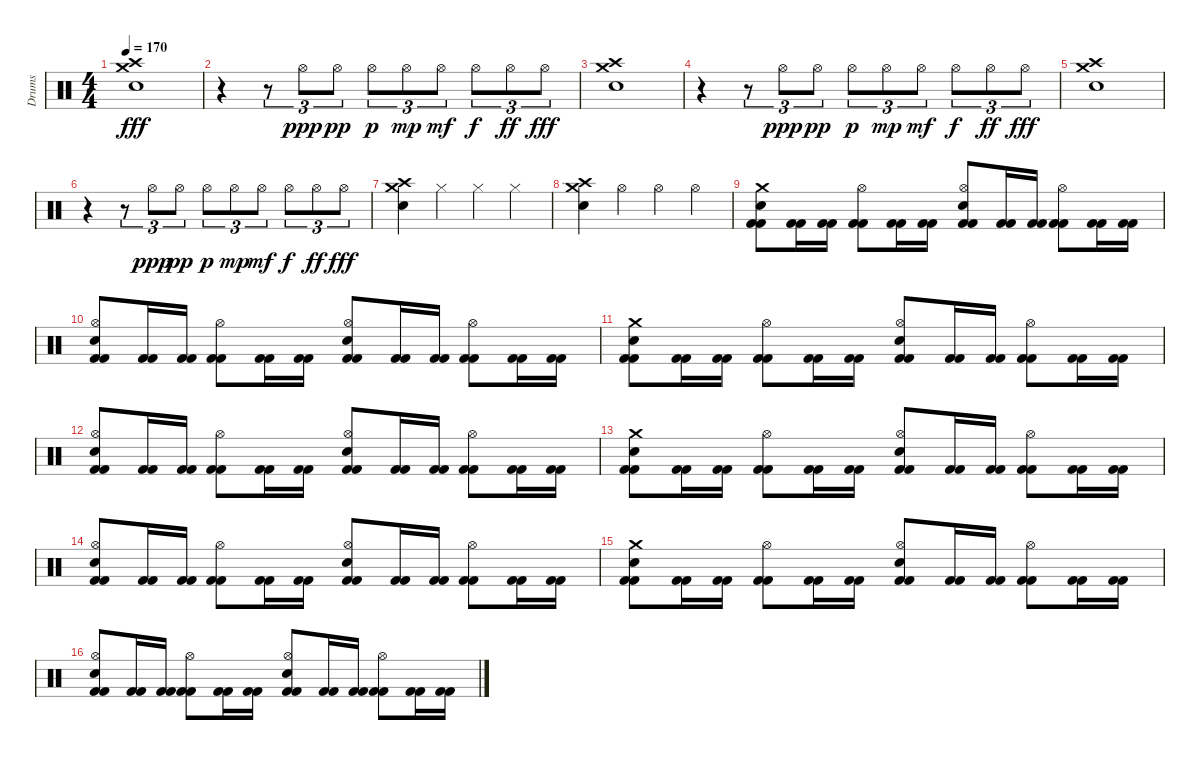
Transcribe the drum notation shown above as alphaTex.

\track ("Drums" "Drums") {instrument percussion}
\staff {score}
\articulation defaults
\ts (4 4)
\tempo 170
\clef neutral
\ks c
("Crash high (hit)" "Crash medium (hit)" "Electric Snare (hit)").1{dy fff} |
r.4 r.8{tu (3 2)} "Hi-Hat (open)".8{tu (3 2) dy ppp} "Hi-Hat (open)".8{tu (3 2) dy pp} "Hi-Hat (open)".8{tu (3 2) dy p} "Hi-Hat (open)".8{tu (3 2) dy mp} "Hi-Hat (open)".8{tu (3 2) dy mf} "Hi-Hat (open)".8{tu (3 2) dy f} "Hi-Hat (open)".8{tu (3 2) dy ff} "Hi-Hat (open)".8{tu (3 2) dy fff} |
("Crash high (hit)" "Crash medium (hit)" "Electric Snare (hit)").1 |
r.4 r.8{tu (3 2)} "Hi-Hat (open)".8{tu (3 2) dy ppp} "Hi-Hat (open)".8{tu (3 2) dy pp} "Hi-Hat (open)".8{tu (3 2) dy p} "Hi-Hat (open)".8{tu (3 2) dy mp} "Hi-Hat (open)".8{tu (3 2) dy mf} "Hi-Hat (open)".8{tu (3 2) dy f} "Hi-Hat (open)".8{tu (3 2) dy ff} "Hi-Hat (open)".8{tu (3 2) dy fff} |
("Crash high (hit)" "Crash medium (hit)" "Electric Snare (hit)").1 |
r.4 r.8{tu (3 2)} "Hi-Hat (open)".8{tu (3 2) dy ppp} "Hi-Hat (open)".8{tu (3 2) dy pp} "Hi-Hat (open)".8{tu (3 2) dy p} "Hi-Hat (open)".8{tu (3 2) dy mp} "Hi-Hat (open)".8{tu (3 2) dy mf} "Hi-Hat (open)".8{tu (3 2) dy f} "Hi-Hat (open)".8{tu (3 2) dy ff} "Hi-Hat (open)".8{tu (3 2) dy fff} |
("Crash high (hit)" "Crash medium (hit)" "Electric Snare (hit)").4 "Hi-Hat (closed)".4 "Hi-Hat (closed)".4 "Hi-Hat (closed)".4 |
("Crash high (hit)" "Crash medium (hit)" "Electric Snare (hit)").4 "Hi-Hat (open)".4 "Hi-Hat (open)".4 "Hi-Hat (open)".4 |
("Crash medium (hit)" "Electric Snare (hit)" "Kick (hit) 2" "Kick (hit) 2").8 ("Kick (hit) 2" "Kick (hit) 2").16 ("Kick (hit) 2" "Kick (hit) 2").16 ("Hi-Hat (open)" "Kick (hit) 2" "Kick (hit) 2").8 ("Kick (hit) 2" "Kick (hit) 2").16 ("Kick (hit) 2" "Kick (hit) 2").16 ("Hi-Hat (open)" "Electric Snare (hit)" "Kick (hit) 2" "Kick (hit) 2").8 ("Kick (hit) 2" "Kick (hit) 2").16 ("Kick (hit) 2" "Kick (hit) 2").16 ("Hi-Hat (open)" "Kick (hit) 2" "Kick (hit) 2").8 ("Kick (hit) 2" "Kick (hit) 2").16 ("Kick (hit) 2" "Kick (hit) 2").16 |
("Hi-Hat (open)" "Electric Snare (hit)" "Kick (hit) 2" "Kick (hit) 2").8 ("Kick (hit) 2" "Kick (hit) 2").16 ("Kick (hit) 2" "Kick (hit) 2").16 ("Hi-Hat (open)" "Kick (hit) 2" "Kick (hit) 2").8 ("Kick (hit) 2" "Kick (hit) 2").16 ("Kick (hit) 2" "Kick (hit) 2").16 ("Hi-Hat (open)" "Electric Snare (hit)" "Kick (hit) 2" "Kick (hit) 2").8 ("Kick (hit) 2" "Kick (hit) 2").16 ("Kick (hit) 2" "Kick (hit) 2").16 ("Hi-Hat (open)" "Kick (hit) 2" "Kick (hit) 2").8 ("Kick (hit) 2" "Kick (hit) 2").16 ("Kick (hit) 2" "Kick (hit) 2").16 |
("Crash medium (hit)" "Electric Snare (hit)" "Kick (hit) 2" "Kick (hit) 2").8 ("Kick (hit) 2" "Kick (hit) 2").16 ("Kick (hit) 2" "Kick (hit) 2").16 ("Hi-Hat (open)" "Kick (hit) 2" "Kick (hit) 2").8 ("Kick (hit) 2" "Kick (hit) 2").16 ("Kick (hit) 2" "Kick (hit) 2").16 ("Hi-Hat (open)" "Electric Snare (hit)" "Kick (hit) 2" "Kick (hit) 2").8 ("Kick (hit) 2" "Kick (hit) 2").16 ("Kick (hit) 2" "Kick (hit) 2").16 ("Hi-Hat (open)" "Kick (hit) 2" "Kick (hit) 2").8 ("Kick (hit) 2" "Kick (hit) 2").16 ("Kick (hit) 2" "Kick (hit) 2").16 |
("Hi-Hat (open)" "Electric Snare (hit)" "Kick (hit) 2" "Kick (hit) 2").8 ("Kick (hit) 2" "Kick (hit) 2").16 ("Kick (hit) 2" "Kick (hit) 2").16 ("Hi-Hat (open)" "Kick (hit) 2" "Kick (hit) 2").8 ("Kick (hit) 2" "Kick (hit) 2").16 ("Kick (hit) 2" "Kick (hit) 2").16 ("Hi-Hat (open)" "Electric Snare (hit)" "Kick (hit) 2" "Kick (hit) 2").8 ("Kick (hit) 2" "Kick (hit) 2").16 ("Kick (hit) 2" "Kick (hit) 2").16 ("Hi-Hat (open)" "Kick (hit) 2" "Kick (hit) 2").8 ("Kick (hit) 2" "Kick (hit) 2").16 ("Kick (hit) 2" "Kick (hit) 2").16 |
("Crash medium (hit)" "Electric Snare (hit)" "Kick (hit) 2" "Kick (hit) 2").8 ("Kick (hit) 2" "Kick (hit) 2").16 ("Kick (hit) 2" "Kick (hit) 2").16 ("Hi-Hat (open)" "Kick (hit) 2" "Kick (hit) 2").8 ("Kick (hit) 2" "Kick (hit) 2").16 ("Kick (hit) 2" "Kick (hit) 2").16 ("Hi-Hat (open)" "Electric Snare (hit)" "Kick (hit) 2" "Kick (hit) 2").8 ("Kick (hit) 2" "Kick (hit) 2").16 ("Kick (hit) 2" "Kick (hit) 2").16 ("Hi-Hat (open)" "Kick (hit) 2" "Kick (hit) 2").8 ("Kick (hit) 2" "Kick (hit) 2").16 ("Kick (hit) 2" "Kick (hit) 2").16 |
("Hi-Hat (open)" "Electric Snare (hit)" "Kick (hit) 2" "Kick (hit) 2").8 ("Kick (hit) 2" "Kick (hit) 2").16 ("Kick (hit) 2" "Kick (hit) 2").16 ("Hi-Hat (open)" "Kick (hit) 2" "Kick (hit) 2").8 ("Kick (hit) 2" "Kick (hit) 2").16 ("Kick (hit) 2" "Kick (hit) 2").16 ("Hi-Hat (open)" "Electric Snare (hit)" "Kick (hit) 2" "Kick (hit) 2").8 ("Kick (hit) 2" "Kick (hit) 2").16 ("Kick (hit) 2" "Kick (hit) 2").16 ("Hi-Hat (open)" "Kick (hit) 2" "Kick (hit) 2").8 ("Kick (hit) 2" "Kick (hit) 2").16 ("Kick (hit) 2" "Kick (hit) 2").16 |
("Crash medium (hit)" "Electric Snare (hit)" "Kick (hit) 2" "Kick (hit) 2").8 ("Kick (hit) 2" "Kick (hit) 2").16 ("Kick (hit) 2" "Kick (hit) 2").16 ("Hi-Hat (open)" "Kick (hit) 2" "Kick (hit) 2").8 ("Kick (hit) 2" "Kick (hit) 2").16 ("Kick (hit) 2" "Kick (hit) 2").16 ("Hi-Hat (open)" "Electric Snare (hit)" "Kick (hit) 2" "Kick (hit) 2").8 ("Kick (hit) 2" "Kick (hit) 2").16 ("Kick (hit) 2" "Kick (hit) 2").16 ("Hi-Hat (open)" "Kick (hit) 2" "Kick (hit) 2").8 ("Kick (hit) 2" "Kick (hit) 2").16 ("Kick (hit) 2" "Kick (hit) 2").16 |
("Hi-Hat (open)" "Electric Snare (hit)" "Kick (hit) 2" "Kick (hit) 2").8 ("Kick (hit) 2" "Kick (hit) 2").16 ("Kick (hit) 2" "Kick (hit) 2").16 ("Hi-Hat (open)" "Kick (hit) 2" "Kick (hit) 2").8 ("Kick (hit) 2" "Kick (hit) 2").16 ("Kick (hit) 2" "Kick (hit) 2").16 ("Hi-Hat (open)" "Electric Snare (hit)" "Kick (hit) 2" "Kick (hit) 2").8 ("Kick (hit) 2" "Kick (hit) 2").16 ("Kick (hit) 2" "Kick (hit) 2").16 ("Hi-Hat (open)" "Kick (hit) 2" "Kick (hit) 2").8 ("Kick (hit) 2" "Kick (hit) 2").16 ("Kick (hit) 2" "Kick (hit) 2").16
